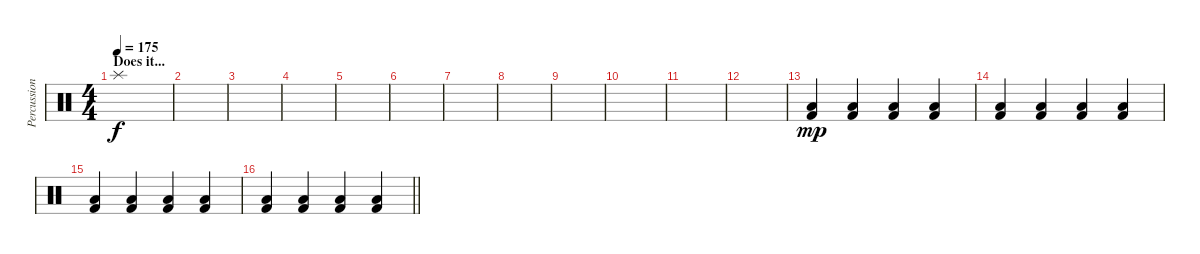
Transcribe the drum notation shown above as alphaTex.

\track ("Percussion" "Percussion") {instrument percussion}
\staff {score}
\articulation defaults
\ts (4 4)
\section ("" "Does it...")
\tempo 175
\clef neutral
\ks c "Splash (hit)".1{dy f}
|
|
|
|
|
|
|
|
|
|
|
|
("Kick (hit) 2" "Low Floor Tom (hit)").4{dy mp} ("Kick (hit) 2" "Low Floor Tom (hit)").4 ("Kick (hit) 2" "Low Floor Tom (hit)").4 ("Kick (hit) 2" "Low Floor Tom (hit)").4 |
("Kick (hit) 2" "Low Floor Tom (hit)").4 ("Kick (hit) 2" "Low Floor Tom (hit)").4 ("Kick (hit) 2" "Low Floor Tom (hit)").4 ("Kick (hit) 2" "Low Floor Tom (hit)").4 |
("Kick (hit) 2" "Low Floor Tom (hit)").4 ("Kick (hit) 2" "Low Floor Tom (hit)").4 ("Kick (hit) 2" "Low Floor Tom (hit)").4 ("Kick (hit) 2" "Low Floor Tom (hit)").4 |
\barLineRight lightlight
("Kick (hit) 2" "Low Floor Tom (hit)").4 ("Kick (hit) 2" "Low Floor Tom (hit)").4 ("Kick (hit) 2" "Low Floor Tom (hit)").4 ("Kick (hit) 2" "Low Floor Tom (hit)").4
